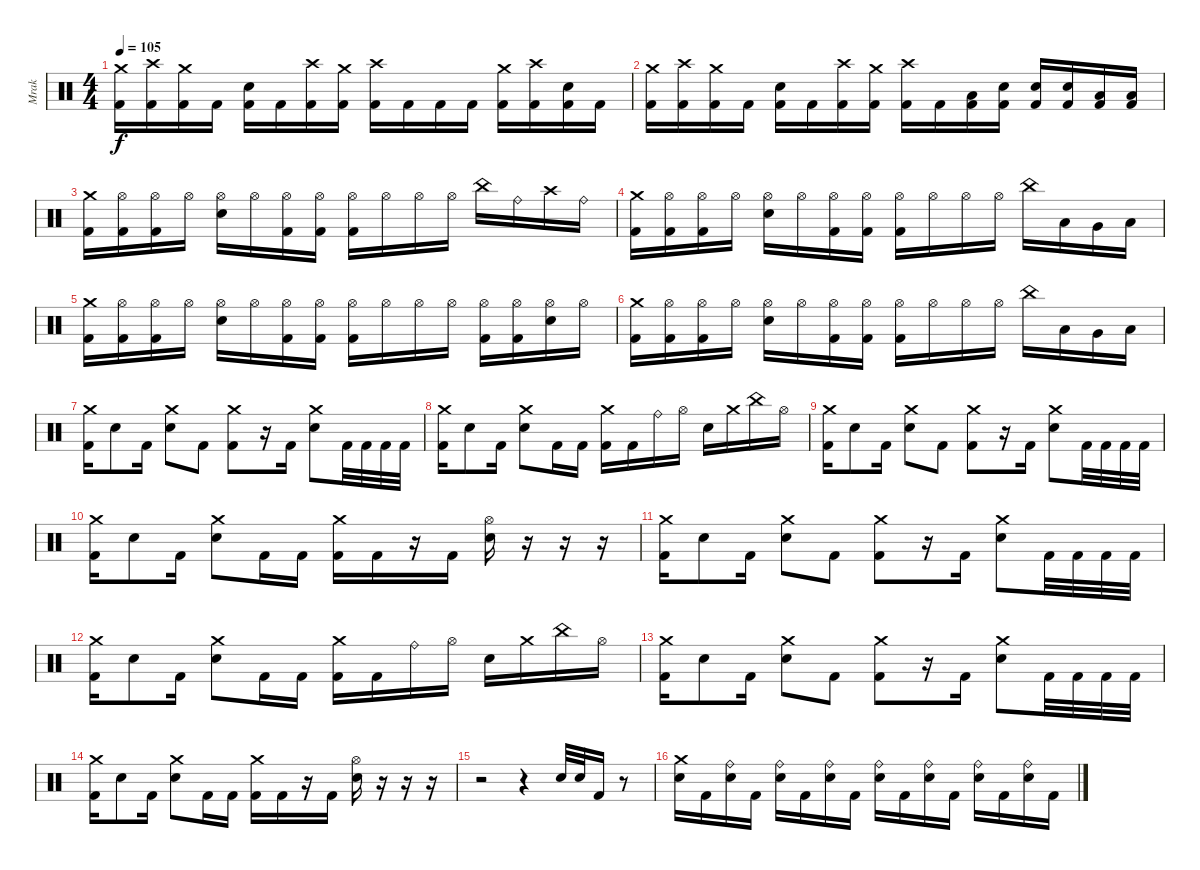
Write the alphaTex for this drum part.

\track ("Mrak" "Mrak") {instrument percussion}
\staff {score}
\articulation defaults
\ts (4 4)
\tempo 105
\clef neutral
\ks c
("Crash medium (hit)" "Kick (hit) 2").16{dy f} ("Crash high (hit)" "Kick (hit) 2").16 ("Crash medium (hit)" "Kick (hit) 2").16 "Kick (hit) 2".16 ("Electric Snare (hit)" "Kick (hit) 2").16 "Kick (hit) 2".16 ("Crash high (hit)" "Kick (hit) 2").16 ("Crash medium (hit)" "Kick (hit) 2").16 ("Crash high (hit)" "Kick (hit) 2").16 "Kick (hit) 2".16 "Kick (hit) 2".16 "Kick (hit) 2".16 ("Crash medium (hit)" "Kick (hit) 2").16 ("Crash high (hit)" "Kick (hit) 2").16 ("Electric Snare (hit)" "Kick (hit) 2").16 "Kick (hit) 2".16 |
("Crash medium (hit)" "Kick (hit) 2").16 ("Crash high (hit)" "Kick (hit) 2").16 ("Crash medium (hit)" "Kick (hit) 2").16 "Kick (hit) 2".16 ("Electric Snare (hit)" "Kick (hit) 2").16 "Kick (hit) 2".16 ("Crash high (hit)" "Kick (hit) 2").16 ("Crash medium (hit)" "Kick (hit) 2").16 ("Crash high (hit)" "Kick (hit) 2").16 "Kick (hit) 2".16 ("Low Tom (hit)" "Kick (hit) 2").16 ("Electric Snare (hit)" "Kick (hit) 2").16 ("Electric Snare (hit)" "Kick (hit) 2").16 ("Electric Snare (hit)" "Kick (hit) 2").16 ("Low Tom (hit)" "Kick (hit) 2").16 ("Low Tom (hit)" "Kick (hit) 2").16 |
("Crash medium (hit)" "Kick (hit) 2").16 ("Hi-Hat (open)" "Kick (hit) 2").16 ("Hi-Hat (open)" "Kick (hit) 2").16 "Hi-Hat (open)".16 ("Hi-Hat (open)" "Electric Snare (hit)").16 "Hi-Hat (open)".16 ("Hi-Hat (open)" "Kick (hit) 2").16 ("Hi-Hat (open)" "Kick (hit) 2").16 ("Hi-Hat (open)" "Kick (hit) 2").16 "Hi-Hat (open)".16 "Hi-Hat (open)".16 "Hi-Hat (open)".16 "China (hit)".16 "Ride (bell)".16 "Crash high (hit)".16 "Ride (bell)".16 |
("Crash medium (hit)" "Kick (hit) 2").16 ("Hi-Hat (open)" "Kick (hit) 2").16 ("Hi-Hat (open)" "Kick (hit) 2").16 "Hi-Hat (open)".16 ("Hi-Hat (open)" "Electric Snare (hit)").16 "Hi-Hat (open)".16 ("Hi-Hat (open)" "Kick (hit) 2").16 ("Hi-Hat (open)" "Kick (hit) 2").16 ("Hi-Hat (open)" "Kick (hit) 2").16 "Hi-Hat (open)".16 "Hi-Hat (open)".16 "Hi-Hat (open)".16 "China (hit)".16 "Low Tom (hit)".16 "Very Low Tom (hit)".16 "Low Tom (hit)".16 |
("Crash medium (hit)" "Kick (hit) 2").16 ("Hi-Hat (open)" "Kick (hit) 2").16 ("Hi-Hat (open)" "Kick (hit) 2").16 "Hi-Hat (open)".16 ("Hi-Hat (open)" "Electric Snare (hit)").16 "Hi-Hat (open)".16 ("Hi-Hat (open)" "Kick (hit) 2").16 ("Hi-Hat (open)" "Kick (hit) 2").16 ("Hi-Hat (open)" "Kick (hit) 2").16 "Hi-Hat (open)".16 "Hi-Hat (open)".16 "Hi-Hat (open)".16 ("Hi-Hat (open)" "Kick (hit) 2").16 ("Hi-Hat (open)" "Kick (hit) 2").16 ("Hi-Hat (open)" "Electric Snare (hit)").16 "Hi-Hat (open)".16 |
("Crash medium (hit)" "Kick (hit) 2").16 ("Hi-Hat (open)" "Kick (hit) 2").16 ("Hi-Hat (open)" "Kick (hit) 2").16 "Hi-Hat (open)".16 ("Hi-Hat (open)" "Electric Snare (hit)").16 "Hi-Hat (open)".16 ("Hi-Hat (open)" "Kick (hit) 2").16 ("Hi-Hat (open)" "Kick (hit) 2").16 ("Hi-Hat (open)" "Kick (hit) 2").16 "Hi-Hat (open)".16 "Hi-Hat (open)".16 "Hi-Hat (open)".16 "China (hit)".16 "Low Tom (hit)".16 "Very Low Tom (hit)".16 "Low Tom (hit)".16 |
("Crash medium (hit)" "Kick (hit) 2").16 "Electric Snare (hit)".8 "Kick (hit) 2".16 ("Crash medium (hit)" "Electric Snare (hit)").8 "Kick (hit) 2".8 ("Crash medium (hit)" "Kick (hit) 2").8 r.16 "Kick (hit) 2".16 ("Crash medium (hit)" "Electric Snare (hit)").8 "Kick (hit) 2".32 "Kick (hit) 2".32 "Kick (hit) 2".32 "Kick (hit) 2".32 |
("Crash medium (hit)" "Kick (hit) 2").16 "Electric Snare (hit)".8 "Kick (hit) 2".16 ("Crash medium (hit)" "Electric Snare (hit)").8 "Kick (hit) 2".16 "Kick (hit) 2".16 ("Crash medium (hit)" "Kick (hit) 2").16 "Kick (hit) 2".16 "Ride (bell)".16 "Hi-Hat (open)".16 "Electric Snare (hit)".16 "Crash medium (hit)".16 "China (hit)".16 "Hi-Hat (open)".16 |
("Crash medium (hit)" "Kick (hit) 2").16 "Electric Snare (hit)".8 "Kick (hit) 2".16 ("Crash medium (hit)" "Electric Snare (hit)").8 "Kick (hit) 2".8 ("Crash medium (hit)" "Kick (hit) 2").8 r.16 "Kick (hit) 2".16 ("Crash medium (hit)" "Electric Snare (hit)").8 "Kick (hit) 2".32 "Kick (hit) 2".32 "Kick (hit) 2".32 "Kick (hit) 2".32 |
("Crash medium (hit)" "Kick (hit) 2").16 "Electric Snare (hit)".8 "Kick (hit) 2".16 ("Crash medium (hit)" "Electric Snare (hit)").8 "Kick (hit) 2".16 "Kick (hit) 2".16 ("Crash medium (hit)" "Kick (hit) 2").16 "Kick (hit) 2".16 r.16 "Kick (hit) 2".16 ("Hi-Hat (open)" "Electric Snare (hit)").16 r.16 r.16 r.16 |
("Crash medium (hit)" "Kick (hit) 2").16 "Electric Snare (hit)".8 "Kick (hit) 2".16 ("Crash medium (hit)" "Electric Snare (hit)").8 "Kick (hit) 2".8 ("Crash medium (hit)" "Kick (hit) 2").8 r.16 "Kick (hit) 2".16 ("Crash medium (hit)" "Electric Snare (hit)").8 "Kick (hit) 2".32 "Kick (hit) 2".32 "Kick (hit) 2".32 "Kick (hit) 2".32 |
("Crash medium (hit)" "Kick (hit) 2").16 "Electric Snare (hit)".8 "Kick (hit) 2".16 ("Crash medium (hit)" "Electric Snare (hit)").8 "Kick (hit) 2".16 "Kick (hit) 2".16 ("Crash medium (hit)" "Kick (hit) 2").16 "Kick (hit) 2".16 "Ride (bell)".16 "Hi-Hat (open)".16 "Electric Snare (hit)".16 "Crash medium (hit)".16 "China (hit)".16 "Hi-Hat (open)".16 |
("Crash medium (hit)" "Kick (hit) 2").16 "Electric Snare (hit)".8 "Kick (hit) 2".16 ("Crash medium (hit)" "Electric Snare (hit)").8 "Kick (hit) 2".8 ("Crash medium (hit)" "Kick (hit) 2").8 r.16 "Kick (hit) 2".16 ("Crash medium (hit)" "Electric Snare (hit)").8 "Kick (hit) 2".32 "Kick (hit) 2".32 "Kick (hit) 2".32 "Kick (hit) 2".32 |
("Crash medium (hit)" "Kick (hit) 2").16 "Electric Snare (hit)".8 "Kick (hit) 2".16 ("Crash medium (hit)" "Electric Snare (hit)").8 "Kick (hit) 2".16 "Kick (hit) 2".16 ("Crash medium (hit)" "Kick (hit) 2").16 "Kick (hit) 2".16 r.16 "Kick (hit) 2".16 ("Hi-Hat (open)" "Electric Snare (hit)").16 r.16 r.16 r.16 |
r.2 r.4 "Electric Snare (hit)".32 "Electric Snare (hit)".32 "Kick (hit) 2".16 r.8 |
("Crash medium (hit)" "Electric Snare (hit)").16 "Kick (hit) 2".16 ("Ride (bell)" "Electric Snare (hit)").16 "Kick (hit) 2".16 ("Ride (bell)" "Electric Snare (hit)").16 "Kick (hit) 2".16 ("Ride (bell)" "Electric Snare (hit)").16 "Kick (hit) 2".16 ("Ride (bell)" "Electric Snare (hit)").16 "Kick (hit) 2".16 ("Ride (bell)" "Electric Snare (hit)").16 "Kick (hit) 2".16 ("Ride (bell)" "Electric Snare (hit)").16 "Kick (hit) 2".16 ("Ride (bell)" "Electric Snare (hit)").16 "Kick (hit) 2".16
